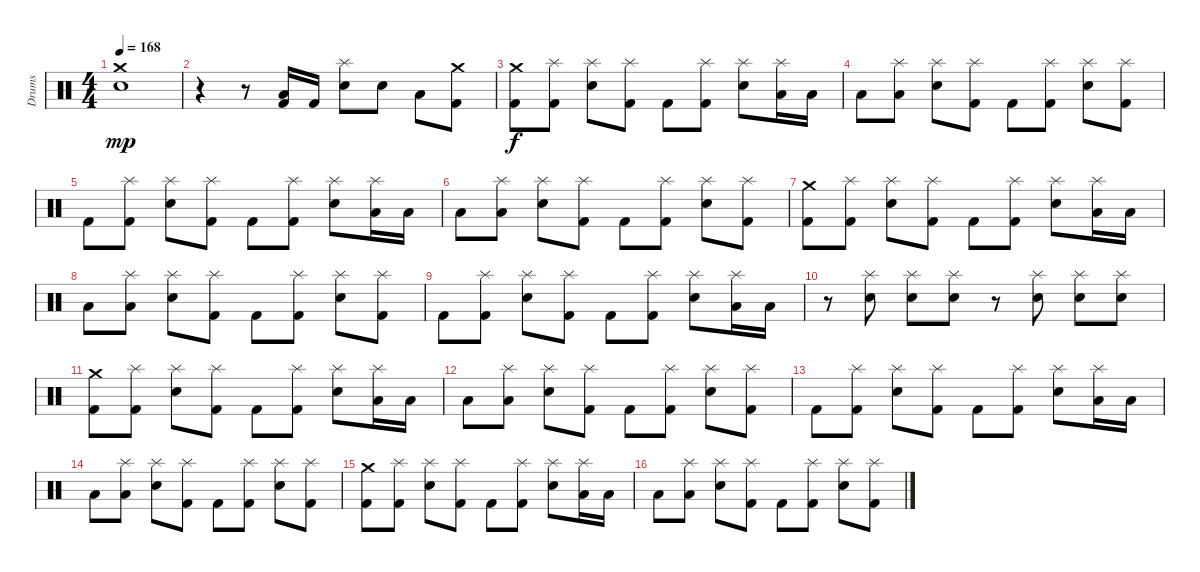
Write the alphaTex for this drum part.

\track ("Drums" "Drums") {instrument percussion}
\staff {score}
\articulation defaults
\ts (4 4)
\tempo 168
\clef neutral
\ks c
("Crash medium (hit)" "Electric Snare (hit)").1{dy mp} |
r.4 r.8 ("Low Floor Tom (hit)" "Kick (hit) 2").16 "Kick (hit) 2".16 ("Splash (hit)" "Electric Snare (hit)").8 "Electric Snare (hit)".8 "Low Floor Tom (hit)".8 ("Crash medium (hit)" "Kick (hit) 2").8 |
("Crash medium (hit)" "Kick (hit) 2").8{dy f} ("Splash (hit)" "Kick (hit) 2").8 ("Splash (hit)" "Electric Snare (hit)").8 ("Splash (hit)" "Kick (hit) 2").8 "Kick (hit) 2".8 ("Splash (hit)" "Kick (hit) 2").8 ("Splash (hit)" "Electric Snare (hit)").8 ("Splash (hit)" "Low Floor Tom (hit)").16 "Low Floor Tom (hit)".16 |
"Low Floor Tom (hit)".8 ("Splash (hit)" "Low Floor Tom (hit)").8 ("Splash (hit)" "Electric Snare (hit)").8 ("Splash (hit)" "Kick (hit) 2").8 "Kick (hit) 2".8 ("Splash (hit)" "Kick (hit) 2").8 ("Splash (hit)" "Electric Snare (hit)").8 ("Splash (hit)" "Kick (hit) 2").8 |
"Kick (hit) 2".8 ("Splash (hit)" "Kick (hit) 2").8 ("Splash (hit)" "Electric Snare (hit)").8 ("Splash (hit)" "Kick (hit) 2").8 "Kick (hit) 2".8 ("Splash (hit)" "Kick (hit) 2").8 ("Splash (hit)" "Electric Snare (hit)").8 ("Splash (hit)" "Low Floor Tom (hit)").16 "Low Floor Tom (hit)".16 |
"Low Floor Tom (hit)".8 ("Splash (hit)" "Low Floor Tom (hit)").8 ("Splash (hit)" "Electric Snare (hit)").8 ("Splash (hit)" "Kick (hit) 2").8 "Kick (hit) 2".8 ("Splash (hit)" "Kick (hit) 2").8 ("Splash (hit)" "Electric Snare (hit)").8 ("Splash (hit)" "Kick (hit) 2").8 |
("Crash medium (hit)" "Kick (hit) 2").8 ("Splash (hit)" "Kick (hit) 2").8 ("Splash (hit)" "Electric Snare (hit)").8 ("Splash (hit)" "Kick (hit) 2").8 "Kick (hit) 2".8 ("Splash (hit)" "Kick (hit) 2").8 ("Splash (hit)" "Electric Snare (hit)").8 ("Splash (hit)" "Low Floor Tom (hit)").16 "Low Floor Tom (hit)".16 |
"Low Floor Tom (hit)".8 ("Splash (hit)" "Low Floor Tom (hit)").8 ("Splash (hit)" "Electric Snare (hit)").8 ("Splash (hit)" "Kick (hit) 2").8 "Kick (hit) 2".8 ("Splash (hit)" "Kick (hit) 2").8 ("Splash (hit)" "Electric Snare (hit)").8 ("Splash (hit)" "Kick (hit) 2").8 |
"Kick (hit) 2".8 ("Splash (hit)" "Kick (hit) 2").8 ("Splash (hit)" "Electric Snare (hit)").8 ("Splash (hit)" "Kick (hit) 2").8 "Kick (hit) 2".8 ("Splash (hit)" "Kick (hit) 2").8 ("Splash (hit)" "Electric Snare (hit)").8 ("Splash (hit)" "Low Floor Tom (hit)").16 "Low Floor Tom (hit)".16 |
r.8 ("Splash (hit)" "Electric Snare (hit)").8 ("Splash (hit)" "Electric Snare (hit)").8 ("Splash (hit)" "Electric Snare (hit)").8 r.8 ("Splash (hit)" "Electric Snare (hit)").8 ("Splash (hit)" "Electric Snare (hit)").8 ("Splash (hit)" "Electric Snare (hit)").8 |
("Crash medium (hit)" "Kick (hit) 2").8 ("Splash (hit)" "Kick (hit) 2").8 ("Splash (hit)" "Electric Snare (hit)").8 ("Splash (hit)" "Kick (hit) 2").8 "Kick (hit) 2".8 ("Splash (hit)" "Kick (hit) 2").8 ("Splash (hit)" "Electric Snare (hit)").8 ("Splash (hit)" "Low Floor Tom (hit)").16 "Low Floor Tom (hit)".16 |
"Low Floor Tom (hit)".8 ("Splash (hit)" "Low Floor Tom (hit)").8 ("Splash (hit)" "Electric Snare (hit)").8 ("Splash (hit)" "Kick (hit) 2").8 "Kick (hit) 2".8 ("Splash (hit)" "Kick (hit) 2").8 ("Splash (hit)" "Electric Snare (hit)").8 ("Splash (hit)" "Kick (hit) 2").8 |
"Kick (hit) 2".8 ("Splash (hit)" "Kick (hit) 2").8 ("Splash (hit)" "Electric Snare (hit)").8 ("Splash (hit)" "Kick (hit) 2").8 "Kick (hit) 2".8 ("Splash (hit)" "Kick (hit) 2").8 ("Splash (hit)" "Electric Snare (hit)").8 ("Splash (hit)" "Low Floor Tom (hit)").16 "Low Floor Tom (hit)".16 |
"Low Floor Tom (hit)".8 ("Splash (hit)" "Low Floor Tom (hit)").8 ("Splash (hit)" "Electric Snare (hit)").8 ("Splash (hit)" "Kick (hit) 2").8 "Kick (hit) 2".8 ("Splash (hit)" "Kick (hit) 2").8 ("Splash (hit)" "Electric Snare (hit)").8 ("Splash (hit)" "Kick (hit) 2").8 |
("Crash medium (hit)" "Kick (hit) 2").8 ("Splash (hit)" "Kick (hit) 2").8 ("Splash (hit)" "Electric Snare (hit)").8 ("Splash (hit)" "Kick (hit) 2").8 "Kick (hit) 2".8 ("Splash (hit)" "Kick (hit) 2").8 ("Splash (hit)" "Electric Snare (hit)").8 ("Splash (hit)" "Low Floor Tom (hit)").16 "Low Floor Tom (hit)".16 |
"Low Floor Tom (hit)".8 ("Splash (hit)" "Low Floor Tom (hit)").8 ("Splash (hit)" "Electric Snare (hit)").8 ("Splash (hit)" "Kick (hit) 2").8 "Kick (hit) 2".8 ("Splash (hit)" "Kick (hit) 2").8 ("Splash (hit)" "Electric Snare (hit)").8 ("Splash (hit)" "Kick (hit) 2").8
